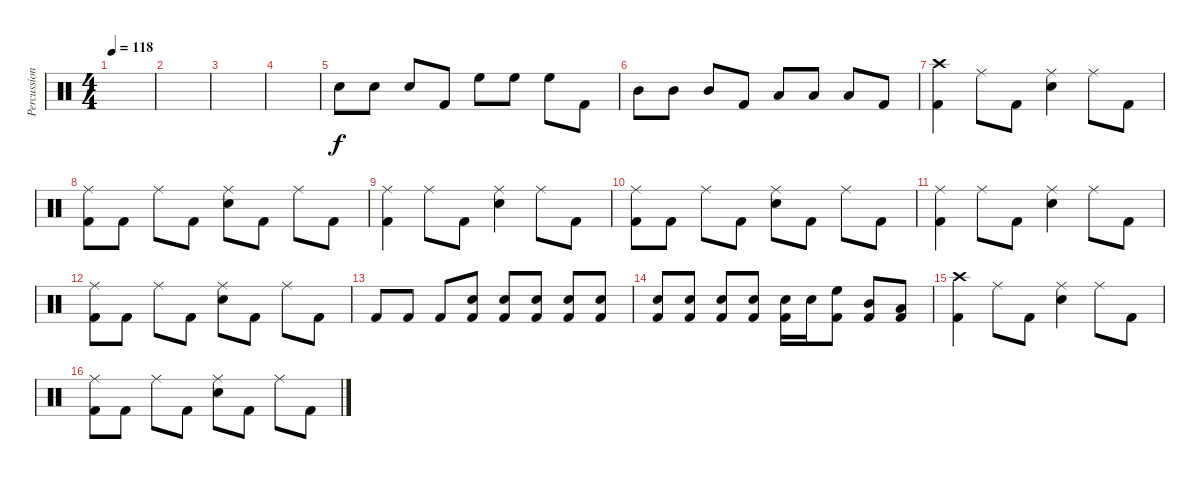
\track ("Percussion" "Percussion") {instrument percussion}
\staff {score}
\articulation defaults
\ts (4 4)
\tempo 118
\clef neutral
\ks c
|
|
|
|
"Electric Snare (hit)".8{volume 16} "Electric Snare (hit)".8 "Electric Snare (hit)".8 "Kick (hit) 2".8 "High Floor Tom (hit)".8 "High Floor Tom (hit)".8 "High Floor Tom (hit)".8 "Kick (hit) 2".8 |
"Mid Tom (hit)".8 "Mid Tom (hit)".8 "Mid Tom (hit)".8 "Kick (hit) 2".8 "Low Floor Tom (hit)".8 "Low Floor Tom (hit)".8 "Low Floor Tom (hit)".8 "Kick (hit) 2".8 |
("Crash high (hit)" "Kick (hit) 2").4 "Ride (middle)".8 "Kick (hit) 2".8 ("Ride (middle)" "Electric Snare (hit)").4 "Ride (middle)".8 "Kick (hit) 2".8 |
("Ride (middle)" "Kick (hit) 2").8 "Kick (hit) 2".8 "Ride (middle)".8 "Kick (hit) 2".8 ("Ride (middle)" "Electric Snare (hit)").8 "Kick (hit) 2".8 "Ride (middle)".8 "Kick (hit) 2".8 |
("Ride (middle)" "Kick (hit) 2").4 "Ride (middle)".8 "Kick (hit) 2".8 ("Ride (middle)" "Electric Snare (hit)").4 "Ride (middle)".8 "Kick (hit) 2".8 |
("Ride (middle)" "Kick (hit) 2").8 "Kick (hit) 2".8 "Ride (middle)".8 "Kick (hit) 2".8 ("Ride (middle)" "Electric Snare (hit)").8 "Kick (hit) 2".8 "Ride (middle)".8 "Kick (hit) 2".8 |
("Ride (middle)" "Kick (hit) 2").4 "Ride (middle)".8 "Kick (hit) 2".8 ("Ride (middle)" "Electric Snare (hit)").4 "Ride (middle)".8 "Kick (hit) 2".8 |
("Ride (middle)" "Kick (hit) 2").8 "Kick (hit) 2".8 "Ride (middle)".8 "Kick (hit) 2".8 ("Ride (middle)" "Electric Snare (hit)").8 "Kick (hit) 2".8 "Ride (middle)".8 "Kick (hit) 2".8 |
"Kick (hit) 2".8 "Kick (hit) 2".8 "Kick (hit) 2".8 ("Electric Snare (hit)" "Kick (hit) 2").8 ("Electric Snare (hit)" "Kick (hit) 2").8 ("Electric Snare (hit)" "Kick (hit) 2").8 ("Electric Snare (hit)" "Kick (hit) 2").8 ("Electric Snare (hit)" "Kick (hit) 2").8 |
("Electric Snare (hit)" "Kick (hit) 2").8 ("Electric Snare (hit)" "Kick (hit) 2").8 ("Electric Snare (hit)" "Kick (hit) 2").8 ("Electric Snare (hit)" "Kick (hit) 2").8 ("Electric Snare (hit)" "Kick (hit) 2").16 "Electric Snare (hit)".16 ("High Floor Tom (hit)" "Kick (hit) 2").8 ("Mid Tom (hit)" "Kick (hit) 2").8 ("Low Floor Tom (hit)" "Kick (hit) 2").8 |
("Crash high (hit)" "Kick (hit) 2").4 "Ride (middle)".8 "Kick (hit) 2".8 ("Ride (middle)" "Electric Snare (hit)").4 "Ride (middle)".8 "Kick (hit) 2".8 |
("Ride (middle)" "Kick (hit) 2").8 "Kick (hit) 2".8 "Ride (middle)".8 "Kick (hit) 2".8 ("Ride (middle)" "Electric Snare (hit)").8 "Kick (hit) 2".8 "Ride (middle)".8 "Kick (hit) 2".8
